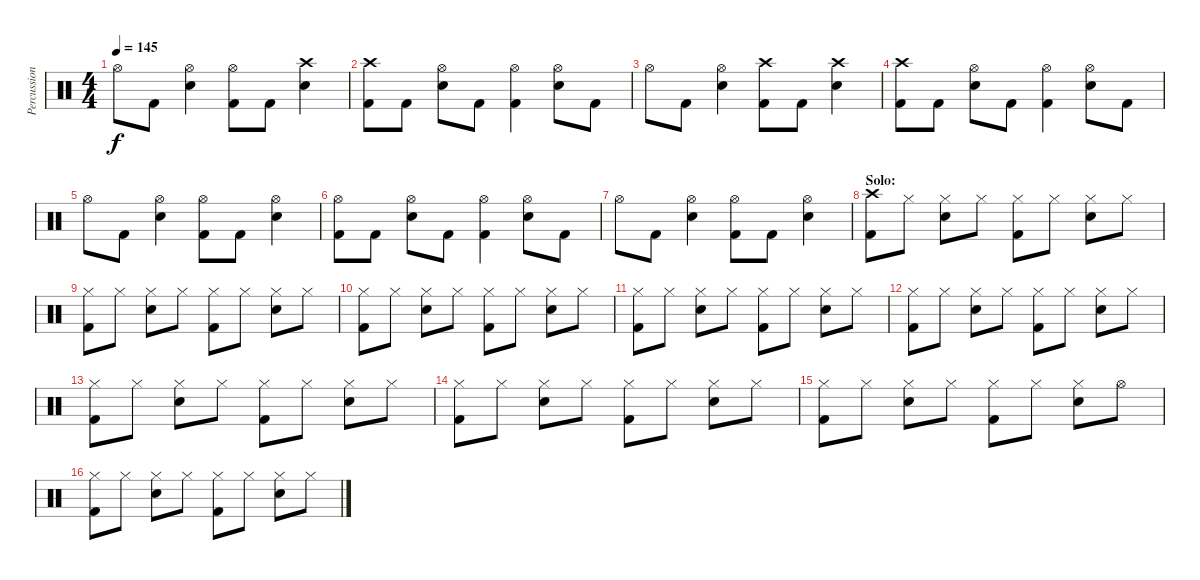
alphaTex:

\track ("Percussion" "Percussion") {instrument percussion}
\staff {score}
\articulation defaults
\ts (4 4)
\tempo 145
\clef neutral
\ks c "Hi-Hat (open)".8{dy f} "Kick (hit) 2".8
("Hi-Hat (open)" "Snare (hit) 2").4 ("Hi-Hat (open)" "Kick (hit) 2").8 "Kick (hit) 2".8 ("Crash high (hit)" "Snare (hit) 2").4 |
("Crash high (hit)" "Kick (hit) 2").8 "Kick (hit) 2".8 ("Hi-Hat (open)" "Snare (hit) 2").8 "Kick (hit) 2".8 ("Hi-Hat (open)" "Kick (hit) 2").4 ("Hi-Hat (open)" "Snare (hit) 2").8 "Kick (hit) 2".8 |
"Hi-Hat (open)".8 "Kick (hit) 2".8 ("Hi-Hat (open)" "Snare (hit) 2").4 ("Crash high (hit)" "Kick (hit) 2").8 "Kick (hit) 2".8 ("Crash high (hit)" "Snare (hit) 2").4 |
("Crash high (hit)" "Kick (hit) 2").8 "Kick (hit) 2".8 ("Hi-Hat (open)" "Snare (hit) 2").8 "Kick (hit) 2".8 ("Hi-Hat (open)" "Kick (hit) 2").4 ("Hi-Hat (open)" "Snare (hit) 2").8 "Kick (hit) 2".8 |
"Hi-Hat (open)".8 "Kick (hit) 2".8 ("Hi-Hat (open)" "Snare (hit) 2").4 ("Hi-Hat (open)" "Kick (hit) 2").8 "Kick (hit) 2".8 ("Hi-Hat (open)" "Snare (hit) 2").4 |
("Hi-Hat (open)" "Kick (hit) 2").8 "Kick (hit) 2".8 ("Hi-Hat (open)" "Snare (hit) 2").8 "Kick (hit) 2".8 ("Hi-Hat (open)" "Kick (hit) 2").4 ("Hi-Hat (open)" "Snare (hit) 2").8 "Kick (hit) 2".8 |
"Hi-Hat (open)".8 "Kick (hit) 2".8 ("Hi-Hat (open)" "Snare (hit) 2").4 ("Hi-Hat (open)" "Kick (hit) 2").8 "Kick (hit) 2".8 ("Hi-Hat (open)" "Snare (hit) 2").4 |
\section ("" "Solo:")
("Crash high (hit)" "Kick (hit) 2").8 "Hi-Hat (closed)".8 ("Hi-Hat (closed)" "Snare (hit) 2").8 "Hi-Hat (closed)".8 ("Hi-Hat (closed)" "Kick (hit) 2").8 "Hi-Hat (closed)".8 ("Hi-Hat (closed)" "Snare (hit) 2").8 "Hi-Hat (closed)".8 |
("Hi-Hat (closed)" "Kick (hit) 2").8 "Hi-Hat (closed)".8 ("Hi-Hat (closed)" "Snare (hit) 2").8 "Hi-Hat (closed)".8 ("Hi-Hat (closed)" "Kick (hit) 2").8 "Hi-Hat (closed)".8 ("Hi-Hat (closed)" "Snare (hit) 2").8 "Hi-Hat (closed)".8 |
("Hi-Hat (closed)" "Kick (hit) 2").8 "Hi-Hat (closed)".8 ("Hi-Hat (closed)" "Snare (hit) 2").8 "Hi-Hat (closed)".8 ("Hi-Hat (closed)" "Kick (hit) 2").8 "Hi-Hat (closed)".8 ("Hi-Hat (closed)" "Snare (hit) 2").8 "Hi-Hat (closed)".8 |
("Hi-Hat (closed)" "Kick (hit) 2").8 "Hi-Hat (closed)".8 ("Hi-Hat (closed)" "Snare (hit) 2").8 "Hi-Hat (closed)".8 ("Hi-Hat (closed)" "Kick (hit) 2").8 "Hi-Hat (closed)".8 ("Hi-Hat (closed)" "Snare (hit) 2").8 "Hi-Hat (closed)".8 |
("Hi-Hat (closed)" "Kick (hit) 2").8 "Hi-Hat (closed)".8 ("Hi-Hat (closed)" "Snare (hit) 2").8 "Hi-Hat (closed)".8 ("Hi-Hat (closed)" "Kick (hit) 2").8 "Hi-Hat (closed)".8 ("Hi-Hat (closed)" "Snare (hit) 2").8 "Hi-Hat (closed)".8 |
("Hi-Hat (closed)" "Kick (hit) 2").8 "Hi-Hat (closed)".8 ("Hi-Hat (closed)" "Snare (hit) 2").8 "Hi-Hat (closed)".8 ("Hi-Hat (closed)" "Kick (hit) 2").8 "Hi-Hat (closed)".8 ("Hi-Hat (closed)" "Snare (hit) 2").8 "Hi-Hat (closed)".8 |
("Hi-Hat (closed)" "Kick (hit) 2").8 "Hi-Hat (closed)".8 ("Hi-Hat (closed)" "Snare (hit) 2").8 "Hi-Hat (closed)".8 ("Hi-Hat (closed)" "Kick (hit) 2").8 "Hi-Hat (closed)".8 ("Hi-Hat (closed)" "Snare (hit) 2").8 "Hi-Hat (closed)".8 |
("Hi-Hat (closed)" "Kick (hit) 2").8 "Hi-Hat (closed)".8 ("Hi-Hat (closed)" "Snare (hit) 2").8 "Hi-Hat (closed)".8 ("Hi-Hat (closed)" "Kick (hit) 2").8 "Hi-Hat (closed)".8 ("Hi-Hat (closed)" "Snare (hit) 2").8 "Hi-Hat (open)".8 |
("Hi-Hat (closed)" "Kick (hit) 2").8 "Hi-Hat (closed)".8 ("Hi-Hat (closed)" "Snare (hit) 2").8 "Hi-Hat (closed)".8 ("Hi-Hat (closed)" "Kick (hit) 2").8 "Hi-Hat (closed)".8 ("Hi-Hat (closed)" "Snare (hit) 2").8 "Hi-Hat (closed)".8
